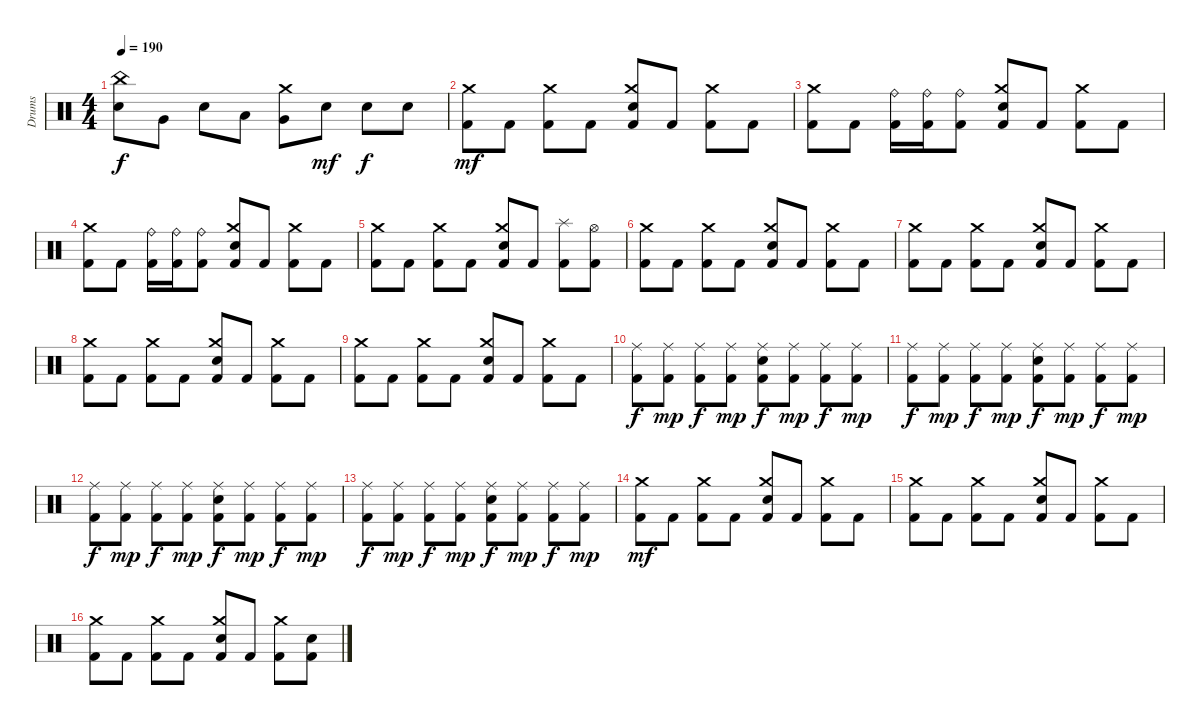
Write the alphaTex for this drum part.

\track ("Drums" "Drums") {instrument percussion}
\staff {score}
\articulation defaults
\ts (4 4)
\tempo 190
\clef neutral
\ks c
("China (hit)" "Electric Snare (hit)").8{dy f} "Very Low Tom (hit)".8 "Electric Snare (hit)".8 "Low Tom (hit)".8 ("Crash medium (hit)" "Very Low Tom (hit)").8 "Electric Snare (hit)".8{dy mf} "Electric Snare (hit)".8{dy f} "Electric Snare (hit)".8 |
("Crash medium (hit)" "Kick (hit) 2").8{dy mf} "Kick (hit) 2".8 ("Crash medium (hit)" "Kick (hit) 2").8 "Kick (hit) 2".8 ("Crash medium (hit)" "Electric Snare (hit)" "Kick (hit) 2").8 "Kick (hit) 2".8 ("Crash medium (hit)" "Kick (hit) 2").8 "Kick (hit) 2".8 |
("Crash medium (hit)" "Kick (hit) 2").8 "Kick (hit) 2".8 ("Ride (bell)" "Kick (hit) 2").16 ("Ride (bell)" "Kick (hit) 2").16 ("Ride (bell)" "Kick (hit) 2").8 ("Crash medium (hit)" "Electric Snare (hit)" "Kick (hit) 2").8 "Kick (hit) 2".8 ("Crash medium (hit)" "Kick (hit) 2").8 "Kick (hit) 2".8 |
("Crash medium (hit)" "Kick (hit) 2").8 "Kick (hit) 2".8 ("Ride (bell)" "Kick (hit) 2").16 ("Ride (bell)" "Kick (hit) 2").16 ("Ride (bell)" "Kick (hit) 2").8 ("Crash medium (hit)" "Electric Snare (hit)" "Kick (hit) 2").8 "Kick (hit) 2".8 ("Crash medium (hit)" "Kick (hit) 2").8 "Kick (hit) 2".8 |
("Crash medium (hit)" "Kick (hit) 2").8 "Kick (hit) 2".8 ("Crash medium (hit)" "Kick (hit) 2").8 "Kick (hit) 2".8 ("Crash medium (hit)" "Electric Snare (hit)" "Kick (hit) 2").8 "Kick (hit) 2".8 ("Splash (hit)" "Kick (hit) 2").8 ("Hi-Hat (open)" "Kick (hit) 2").8 |
("Crash medium (hit)" "Kick (hit) 2").8 "Kick (hit) 2".8 ("Crash medium (hit)" "Kick (hit) 2").8 "Kick (hit) 2".8 ("Crash medium (hit)" "Electric Snare (hit)" "Kick (hit) 2").8 "Kick (hit) 2".8 ("Crash medium (hit)" "Kick (hit) 2").8 "Kick (hit) 2".8 |
("Crash medium (hit)" "Kick (hit) 2").8 "Kick (hit) 2".8 ("Crash medium (hit)" "Kick (hit) 2").8 "Kick (hit) 2".8 ("Crash medium (hit)" "Electric Snare (hit)" "Kick (hit) 2").8 "Kick (hit) 2".8 ("Crash medium (hit)" "Kick (hit) 2").8 "Kick (hit) 2".8 |
("Crash medium (hit)" "Kick (hit) 2").8 "Kick (hit) 2".8 ("Crash medium (hit)" "Kick (hit) 2").8 "Kick (hit) 2".8 ("Crash medium (hit)" "Electric Snare (hit)" "Kick (hit) 2").8 "Kick (hit) 2".8 ("Crash medium (hit)" "Kick (hit) 2").8 "Kick (hit) 2".8 |
("Crash medium (hit)" "Kick (hit) 2").8 "Kick (hit) 2".8 ("Crash medium (hit)" "Kick (hit) 2").8 "Kick (hit) 2".8 ("Crash medium (hit)" "Electric Snare (hit)" "Kick (hit) 2").8 "Kick (hit) 2".8 ("Crash medium (hit)" "Kick (hit) 2").8 "Kick (hit) 2".8 |
("Ride (middle)" "Kick (hit) 2").8{dy f} ("Ride (middle)" "Kick (hit) 2").8{dy mp} ("Ride (middle)" "Kick (hit) 2").8{dy f} ("Ride (middle)" "Kick (hit) 2").8{dy mp} ("Ride (middle)" "Electric Snare (hit)" "Kick (hit) 2").8{dy f} ("Ride (middle)" "Kick (hit) 2").8{dy mp} ("Ride (middle)" "Kick (hit) 2").8{dy f} ("Ride (middle)" "Kick (hit) 2").8{dy mp} |
("Ride (middle)" "Kick (hit) 2").8{dy f} ("Ride (middle)" "Kick (hit) 2").8{dy mp} ("Ride (middle)" "Kick (hit) 2").8{dy f} ("Ride (middle)" "Kick (hit) 2").8{dy mp} ("Ride (middle)" "Electric Snare (hit)" "Kick (hit) 2").8{dy f} ("Ride (middle)" "Kick (hit) 2").8{dy mp} ("Ride (middle)" "Kick (hit) 2").8{dy f} ("Ride (middle)" "Kick (hit) 2").8{dy mp} |
("Ride (middle)" "Kick (hit) 2").8{dy f} ("Ride (middle)" "Kick (hit) 2").8{dy mp} ("Ride (middle)" "Kick (hit) 2").8{dy f} ("Ride (middle)" "Kick (hit) 2").8{dy mp} ("Ride (middle)" "Electric Snare (hit)" "Kick (hit) 2").8{dy f} ("Ride (middle)" "Kick (hit) 2").8{dy mp} ("Ride (middle)" "Kick (hit) 2").8{dy f} ("Ride (middle)" "Kick (hit) 2").8{dy mp} |
("Ride (middle)" "Kick (hit) 2").8{dy f} ("Ride (middle)" "Kick (hit) 2").8{dy mp} ("Ride (middle)" "Kick (hit) 2").8{dy f} ("Ride (middle)" "Kick (hit) 2").8{dy mp} ("Ride (middle)" "Electric Snare (hit)" "Kick (hit) 2").8{dy f} ("Ride (middle)" "Kick (hit) 2").8{dy mp} ("Ride (middle)" "Kick (hit) 2").8{dy f} ("Ride (middle)" "Kick (hit) 2").8{dy mp} |
("Crash medium (hit)" "Kick (hit) 2").8{dy mf} "Kick (hit) 2".8 ("Crash medium (hit)" "Kick (hit) 2").8 "Kick (hit) 2".8 ("Crash medium (hit)" "Electric Snare (hit)" "Kick (hit) 2").8 "Kick (hit) 2".8 ("Crash medium (hit)" "Kick (hit) 2").8 "Kick (hit) 2".8 |
("Crash medium (hit)" "Kick (hit) 2").8 "Kick (hit) 2".8 ("Crash medium (hit)" "Kick (hit) 2").8 "Kick (hit) 2".8 ("Crash medium (hit)" "Electric Snare (hit)" "Kick (hit) 2").8 "Kick (hit) 2".8 ("Crash medium (hit)" "Kick (hit) 2").8 "Kick (hit) 2".8 |
("Crash medium (hit)" "Kick (hit) 2").8 "Kick (hit) 2".8 ("Crash medium (hit)" "Kick (hit) 2").8 "Kick (hit) 2".8 ("Crash medium (hit)" "Electric Snare (hit)" "Kick (hit) 2").8 "Kick (hit) 2".8 ("Crash medium (hit)" "Kick (hit) 2").8 ("Electric Snare (hit)" "Kick (hit) 2").8
